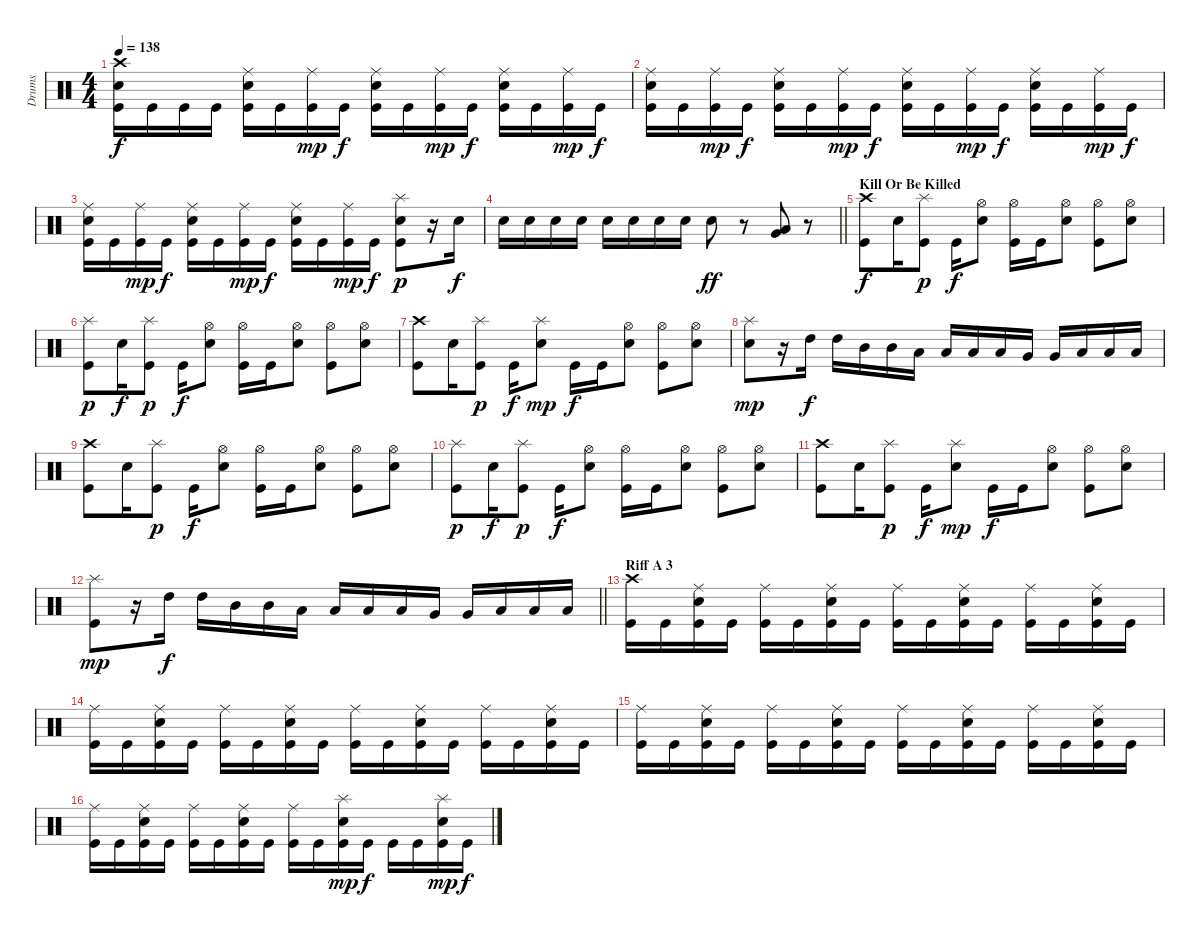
\track ("Drums" "Drums") {instrument percussion}
\staff {score}
\articulation defaults
\ts (4 4)
\tempo 138
\clef neutral
\ks c
("Crash high (hit)" "Electric Snare (hit)" "Kick (hit)").16{dy f} "Kick (hit)".16 "Kick (hit)".16 "Kick (hit)".16 ("Ride (middle)" "Electric Snare (hit)" "Kick (hit)").16 "Kick (hit)".16 ("Ride (middle)" "Kick (hit)").16{dy mp} "Kick (hit)".16{dy f} ("Ride (middle)" "Electric Snare (hit)" "Kick (hit)").16 "Kick (hit)".16 ("Ride (middle)" "Kick (hit)").16{dy mp} "Kick (hit)".16{dy f} ("Ride (middle)" "Electric Snare (hit)" "Kick (hit)").16 "Kick (hit)".16 ("Ride (middle)" "Kick (hit)").16{dy mp} "Kick (hit)".16{dy f} |
("Ride (middle)" "Electric Snare (hit)" "Kick (hit)").16 "Kick (hit)".16 ("Ride (middle)" "Kick (hit)").16{dy mp} "Kick (hit)".16{dy f} ("Ride (middle)" "Electric Snare (hit)" "Kick (hit)").16 "Kick (hit)".16 ("Ride (middle)" "Kick (hit)").16{dy mp} "Kick (hit)".16{dy f} ("Ride (middle)" "Electric Snare (hit)" "Kick (hit)").16 "Kick (hit)".16 ("Ride (middle)" "Kick (hit)").16{dy mp} "Kick (hit)".16{dy f} ("Ride (middle)" "Electric Snare (hit)" "Kick (hit)").16 "Kick (hit)".16 ("Ride (middle)" "Kick (hit)").16{dy mp} "Kick (hit)".16{dy f} |
("Ride (middle)" "Electric Snare (hit)" "Kick (hit)").16 "Kick (hit)".16 ("Ride (middle)" "Kick (hit)").16{dy mp} "Kick (hit)".16{dy f} ("Ride (middle)" "Electric Snare (hit)" "Kick (hit)").16 "Kick (hit)".16 ("Ride (middle)" "Kick (hit)").16{dy mp} "Kick (hit)".16{dy f} ("Ride (middle)" "Electric Snare (hit)" "Kick (hit)").16 "Kick (hit)".16 ("Ride (middle)" "Kick (hit)").16{dy mp} "Kick (hit)".16{dy f} ("Splash (hit)" "Electric Snare (hit)" "Kick (hit)").8{dy p} r.16 "Electric Snare (hit)".16{dy f} |
\barLineRight lightlight "Electric Snare (hit)".16 "Electric Snare (hit)".16 "Electric Snare (hit)".16 "Electric Snare (hit)".16 "Electric Snare (hit)".16 "Electric Snare (hit)".16 "Electric Snare (hit)".16 "Electric Snare (hit)".16 "Electric Snare (hit)".8{dy ff}
r.8 ("Low Floor Tom (hit)" "Very Low Tom (hit)").8 r.8 |
\section ("" "Kill Or Be Killed")
("Crash high (hit)" "Kick (hit)").8{dy f} "Electric Snare (hit)".16 ("Splash (hit)" "Kick (hit)").8{dy p} "Kick (hit)".16{dy f} ("Hi-Hat (open)" "Electric Snare (hit)").8 ("Hi-Hat (open)" "Kick (hit)").16 "Kick (hit)".16 ("Hi-Hat (open)" "Electric Snare (hit)").8 ("Hi-Hat (open)" "Kick (hit)").8 ("Hi-Hat (open)" "Electric Snare (hit)").8 |
("Splash (hit)" "Kick (hit)").8{dy p} "Electric Snare (hit)".16{dy f} ("Splash (hit)" "Kick (hit)").8{dy p} "Kick (hit)".16{dy f} ("Hi-Hat (open)" "Electric Snare (hit)").8 ("Hi-Hat (open)" "Kick (hit)").16 "Kick (hit)".16 ("Hi-Hat (open)" "Electric Snare (hit)").8 ("Hi-Hat (open)" "Kick (hit)").8 ("Hi-Hat (open)" "Electric Snare (hit)").8 |
("Crash high (hit)" "Kick (hit)").8 "Electric Snare (hit)".16 ("Splash (hit)" "Kick (hit)").8{dy p} "Kick (hit)".16{dy f} ("Splash (hit)" "Electric Snare (hit)").8{dy mp} "Kick (hit)".16{dy f} "Kick (hit)".16 ("Hi-Hat (open)" "Electric Snare (hit)").8 ("Hi-Hat (open)" "Kick (hit)").8 ("Hi-Hat (open)" "Electric Snare (hit)").8 |
("Splash (hit)" "Electric Snare (hit)").8{dy mp} r.16 "High Tom (hit)".16{dy f} "High Tom (hit)".16 "Mid Tom (hit)".16 "Mid Tom (hit)".16 "Low Tom (hit)".16 "Low Tom (hit)".16 "Low Tom (hit)".16 "Low Tom (hit)".16 "Very Low Tom (hit)".16 "Very Low Tom (hit)".16 "Low Floor Tom (hit)".16 "Low Floor Tom (hit)".16 "Low Floor Tom (hit)".16 |
("Crash high (hit)" "Kick (hit)").8 "Electric Snare (hit)".16 ("Splash (hit)" "Kick (hit)").8{dy p} "Kick (hit)".16{dy f} ("Hi-Hat (open)" "Electric Snare (hit)").8 ("Hi-Hat (open)" "Kick (hit)").16 "Kick (hit)".16 ("Hi-Hat (open)" "Electric Snare (hit)").8 ("Hi-Hat (open)" "Kick (hit)").8 ("Hi-Hat (open)" "Electric Snare (hit)").8 |
("Splash (hit)" "Kick (hit)").8{dy p} "Electric Snare (hit)".16{dy f} ("Splash (hit)" "Kick (hit)").8{dy p} "Kick (hit)".16{dy f} ("Hi-Hat (open)" "Electric Snare (hit)").8 ("Hi-Hat (open)" "Kick (hit)").16 "Kick (hit)".16 ("Hi-Hat (open)" "Electric Snare (hit)").8 ("Hi-Hat (open)" "Kick (hit)").8 ("Hi-Hat (open)" "Electric Snare (hit)").8 |
("Crash high (hit)" "Kick (hit)").8 "Electric Snare (hit)".16 ("Splash (hit)" "Kick (hit)").8{dy p} "Kick (hit)".16{dy f} ("Splash (hit)" "Electric Snare (hit)").8{dy mp} "Kick (hit)".16{dy f} "Kick (hit)".16 ("Hi-Hat (open)" "Electric Snare (hit)").8 ("Hi-Hat (open)" "Kick (hit)").8 ("Hi-Hat (open)" "Electric Snare (hit)").8 |
\barLineRight lightlight
("Splash (hit)" "Kick (hit)").8{dy mp} r.16 "High Tom (hit)".16{dy f} "High Tom (hit)".16 "Mid Tom (hit)".16 "Mid Tom (hit)".16 "Low Tom (hit)".16 "Low Tom (hit)".16 "Low Tom (hit)".16 "Low Tom (hit)".16 "Very Low Tom (hit)".16 "Very Low Tom (hit)".16 "Low Floor Tom (hit)".16 "Low Floor Tom (hit)".16 "Low Floor Tom (hit)".16 |
\section ("" "Riff A 3")
("Crash high (hit)" "Kick (hit)").16 "Kick (hit)".16 ("Ride (middle)" "Electric Snare (hit)" "Kick (hit)").16 "Kick (hit)".16 ("Ride (middle)" "Kick (hit)").16 "Kick (hit)".16 ("Ride (middle)" "Electric Snare (hit)" "Kick (hit)").16 "Kick (hit)".16 ("Ride (middle)" "Kick (hit)").16 "Kick (hit)".16 ("Ride (middle)" "Electric Snare (hit)" "Kick (hit)").16 "Kick (hit)".16 ("Ride (middle)" "Kick (hit)").16 "Kick (hit)".16 ("Ride (middle)" "Electric Snare (hit)" "Kick (hit)").16 "Kick (hit)".16 |
("Ride (middle)" "Kick (hit)").16 "Kick (hit)".16 ("Ride (middle)" "Electric Snare (hit)" "Kick (hit)").16 "Kick (hit)".16 ("Ride (middle)" "Kick (hit)").16 "Kick (hit)".16 ("Ride (middle)" "Electric Snare (hit)" "Kick (hit)").16 "Kick (hit)".16 ("Ride (middle)" "Kick (hit)").16 "Kick (hit)".16 ("Ride (middle)" "Electric Snare (hit)" "Kick (hit)").16 "Kick (hit)".16 ("Ride (middle)" "Kick (hit)").16 "Kick (hit)".16 ("Ride (middle)" "Electric Snare (hit)" "Kick (hit)").16 "Kick (hit)".16 |
("Ride (middle)" "Kick (hit)").16 "Kick (hit)".16 ("Ride (middle)" "Electric Snare (hit)" "Kick (hit)").16 "Kick (hit)".16 ("Ride (middle)" "Kick (hit)").16 "Kick (hit)".16 ("Ride (middle)" "Electric Snare (hit)" "Kick (hit)").16 "Kick (hit)".16 ("Ride (middle)" "Kick (hit)").16 "Kick (hit)".16 ("Ride (middle)" "Electric Snare (hit)" "Kick (hit)").16 "Kick (hit)".16 ("Ride (middle)" "Kick (hit)").16 "Kick (hit)".16 ("Ride (middle)" "Electric Snare (hit)" "Kick (hit)").16 "Kick (hit)".16 |
("Ride (middle)" "Kick (hit)").16 "Kick (hit)".16 ("Ride (middle)" "Electric Snare (hit)" "Kick (hit)").16 "Kick (hit)".16 ("Ride (middle)" "Kick (hit)").16 "Kick (hit)".16 ("Ride (middle)" "Electric Snare (hit)" "Kick (hit)").16 "Kick (hit)".16 ("Ride (middle)" "Kick (hit)").16 "Kick (hit)".16 ("Splash (hit)" "Electric Snare (hit)" "Kick (hit)").16{dy mp} "Kick (hit)".16{dy f} "Kick (hit)".16 "Kick (hit)".16 ("Splash (hit)" "Electric Snare (hit)" "Kick (hit)").16{dy mp} "Kick (hit)".16{dy f}
